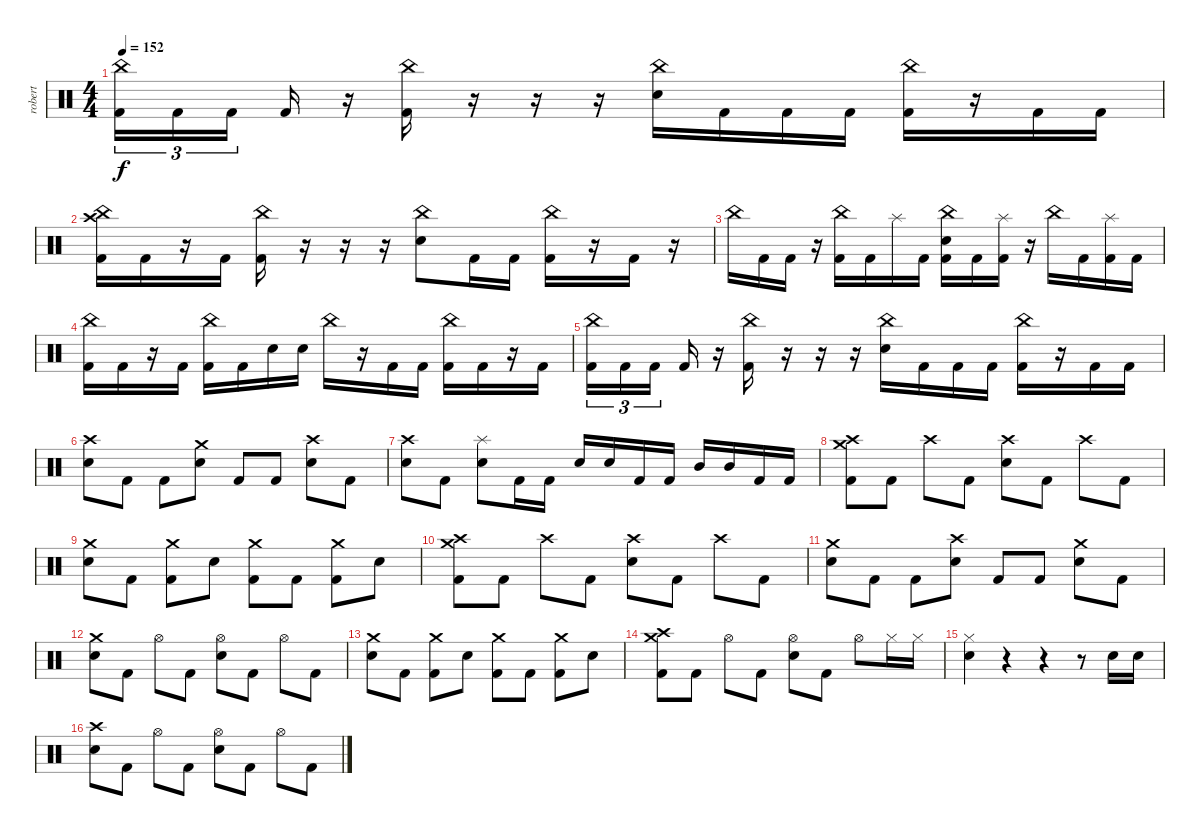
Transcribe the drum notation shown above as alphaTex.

\track ("robert" "robert") {instrument percussion}
\staff {score}
\articulation defaults
\ts (4 4)
\tempo 152
\clef neutral
\ks c
("China (hit)" "Kick (hit) 2").16{tu (3 2) dy f} "Kick (hit) 2".16{tu (3 2)} "Kick (hit) 2".16{tu (3 2) beam splitsecondary} "Kick (hit) 2".16 r.16 ("China (hit)" "Kick (hit) 2").16 r.16 r.16 r.16 ("China (hit)" "Electric Snare (hit)").16 "Kick (hit) 2".16 "Kick (hit) 2".16 "Kick (hit) 2".16 ("China (hit)" "Kick (hit) 2").16 r.16 "Kick (hit) 2".16 "Kick (hit) 2".16 |
("Crash high (hit)" "China (hit)" "Kick (hit) 2").16 "Kick (hit) 2".16 r.16 "Kick (hit) 2".16 ("China (hit)" "Kick (hit) 2").16 r.16 r.16 r.16 ("China (hit)" "Electric Snare (hit)").8 "Kick (hit) 2".16 "Kick (hit) 2".16 ("China (hit)" "Kick (hit) 2").16 r.16 "Kick (hit) 2".16 r.16 |
"China (hit)".16 "Kick (hit) 2".16 "Kick (hit) 2".16 r.16 ("China (hit)" "Kick (hit) 2").16 "Kick (hit) 2".16 "Splash (hit)".16 "Kick (hit) 2".16 ("China (hit)" "Electric Snare (hit)" "Kick (hit) 2").16 "Kick (hit) 2".16 ("Splash (hit)" "Kick (hit) 2").16 r.16 "China (hit)".16 "Kick (hit) 2".16 ("Splash (hit)" "Kick (hit) 2").16 "Kick (hit) 2".16 |
("China (hit)" "Kick (hit) 2").16 "Kick (hit) 2".16 r.16 "Kick (hit) 2".16 ("China (hit)" "Kick (hit) 2").16 "Kick (hit) 2".16 "Electric Snare (hit)".16 "Electric Snare (hit)".16 "China (hit)".16 r.16 "Kick (hit) 2".16 "Kick (hit) 2".16 ("China (hit)" "Kick (hit) 2").16 "Kick (hit) 2".16 r.16 "Kick (hit) 2".16 |
("China (hit)" "Kick (hit) 2").16{tu (3 2)} "Kick (hit) 2".16{tu (3 2)} "Kick (hit) 2".16{tu (3 2) beam splitsecondary} "Kick (hit) 2".16 r.16 ("China (hit)" "Kick (hit) 2").16 r.16 r.16 r.16 ("China (hit)" "Electric Snare (hit)").16 "Kick (hit) 2".16 "Kick (hit) 2".16 "Kick (hit) 2".16 ("China (hit)" "Kick (hit) 2").16 r.16 "Kick (hit) 2".16 "Kick (hit) 2".16 |
("Crash high (hit)" "Electric Snare (hit)").8 "Kick (hit) 2".8 "Kick (hit) 2".8 ("Crash medium (hit)" "Electric Snare (hit)").8 "Kick (hit) 2".8 "Kick (hit) 2".8 ("Crash high (hit)" "Electric Snare (hit)").8 "Kick (hit) 2".8 |
("Electric Snare (hit)" "Crash high (hit)").8 "Kick (hit) 2".8 ("Electric Snare (hit)" "Splash (hit)").8 "Kick (hit) 2".16 "Kick (hit) 2".16 "Electric Snare (hit)".16 "Electric Snare (hit)".16 "Kick (hit) 2".16 "Kick (hit) 2".16 "Mid Tom (hit)".16 "Mid Tom (hit)".16 "Kick (hit) 2".16 "Kick (hit) 2".16 |
("Crash high (hit)" "Kick (hit) 2" "Crash medium (hit)").8 "Kick (hit) 2".8 "Crash high (hit)".8 "Kick (hit) 2".8 ("Electric Snare (hit)" "Crash high (hit)").8 "Kick (hit) 2".8 "Crash high (hit)".8 "Kick (hit) 2".8 |
("Electric Snare (hit)" "Crash medium (hit)").8 "Kick (hit) 2".8 ("Kick (hit) 2" "Crash medium (hit)").8 "Electric Snare (hit)".8 ("Kick (hit) 2" "Crash medium (hit)").8 "Kick (hit) 2".8 ("Kick (hit) 2" "Crash medium (hit)").8 "Electric Snare (hit)".8 |
("Crash medium (hit)" "Kick (hit) 2" "Crash high (hit)").8 "Kick (hit) 2".8 "Crash high (hit)".8 "Kick (hit) 2".8 ("Electric Snare (hit)" "Crash high (hit)").8 "Kick (hit) 2".8 "Crash high (hit)".8 "Kick (hit) 2".8 |
("Crash medium (hit)" "Electric Snare (hit)").8 "Kick (hit) 2".8 "Kick (hit) 2".8 ("Crash high (hit)" "Electric Snare (hit)").8 "Kick (hit) 2".8 "Kick (hit) 2".8 ("Electric Snare (hit)" "Crash medium (hit)").8 "Kick (hit) 2".8 |
("Crash medium (hit)" "Electric Snare (hit)").8 "Kick (hit) 2".8 "Hi-Hat (open)".8 "Kick (hit) 2".8 ("Hi-Hat (open)" "Electric Snare (hit)").8 "Kick (hit) 2".8 "Hi-Hat (open)".8 "Kick (hit) 2".8 |
("Electric Snare (hit)" "Crash medium (hit)").8 "Kick (hit) 2".8 ("Kick (hit) 2" "Crash medium (hit)").8 "Electric Snare (hit)".8 ("Kick (hit) 2" "Crash medium (hit)").8 "Kick (hit) 2".8 ("Kick (hit) 2" "Crash medium (hit)").8 "Electric Snare (hit)".8 |
("Crash medium (hit)" "Kick (hit) 2" "Crash high (hit)").8 "Kick (hit) 2".8 "Hi-Hat (open)".8 "Kick (hit) 2".8 ("Electric Snare (hit)" "Hi-Hat (open)").8 "Kick (hit) 2".8 "Hi-Hat (open)".8 "Hi-Hat (closed)".16 "Hi-Hat (closed)".16 |
("Hi-Hat (closed)" "Electric Snare (hit)").4 r.4 r.4 r.8 "Electric Snare (hit)".16 "Electric Snare (hit)".16 |
("Electric Snare (hit)" "Crash high (hit)").8 "Kick (hit) 2".8 "Hi-Hat (open)".8 "Kick (hit) 2".8 ("Hi-Hat (open)" "Electric Snare (hit)").8 "Kick (hit) 2".8 "Hi-Hat (open)".8 "Kick (hit) 2".8
